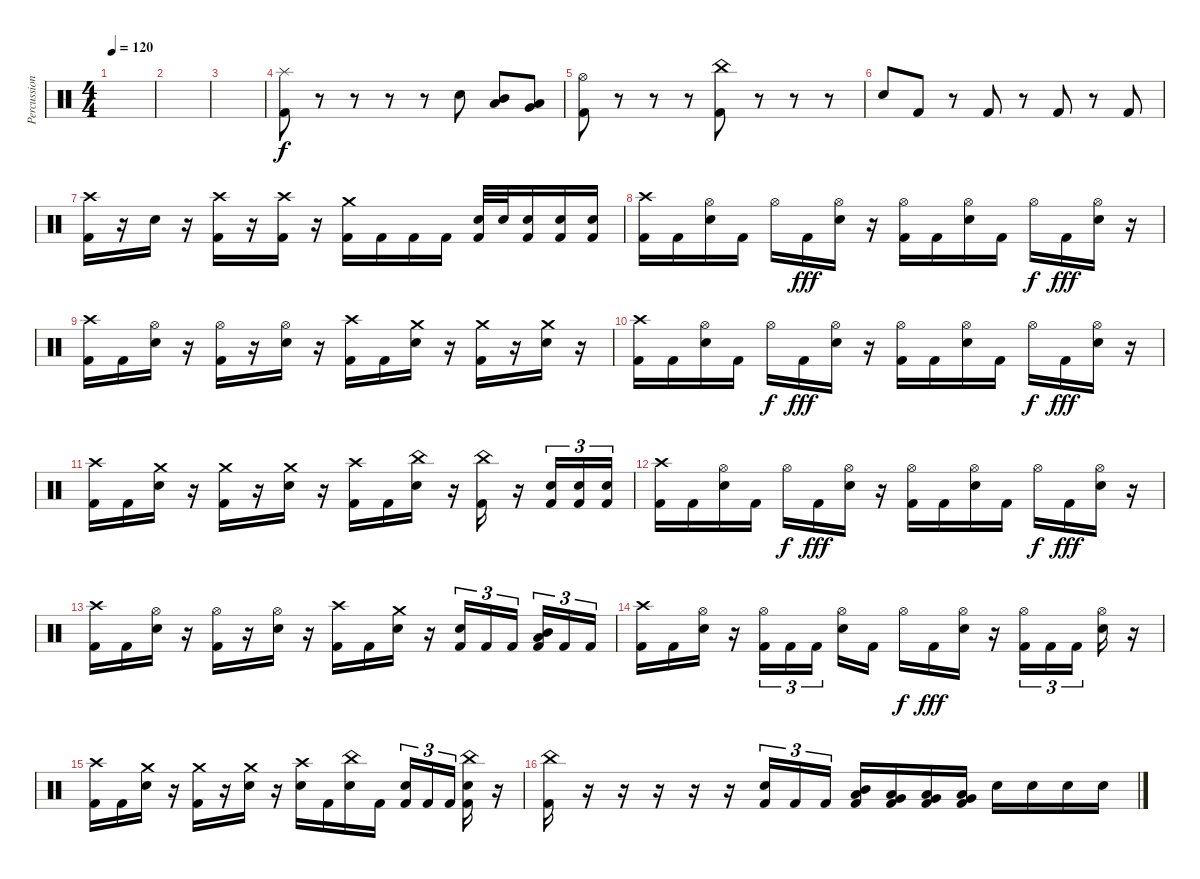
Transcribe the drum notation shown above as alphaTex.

\track ("Percussion" "Percussion") {instrument percussion}
\staff {score}
\articulation defaults
\ts (4 4)
\tempo 120
\clef neutral
\ks c
|
|
|
("Splash (hit)" "Kick (hit) 2").8 r.8 r.8 r.8 r.8 "Electric Snare (hit)".8 ("Low Tom (hit)" "Mid Tom (hit)").8 ("Very Low Tom (hit)" "Low Tom (hit)").8 |
("Hi-Hat (open)" "Kick (hit) 2").8 r.8 r.8 r.8 ("China (hit)" "Kick (hit) 2").8 r.8 r.8 r.8 |
"Electric Snare (hit)".8 "Kick (hit) 2".8 r.8 "Kick (hit) 2".8 r.8 "Kick (hit) 2".8 r.8 "Kick (hit) 2".8 |
("Crash high (hit)" "Kick (hit) 2").16 r.16 "Electric Snare (hit)".16 r.16 ("Crash high (hit)" "Kick (hit) 2").16 r.16 ("Crash high (hit)" "Kick (hit) 2").16 r.16 ("Crash medium (hit)" "Kick (hit) 2").16 "Kick (hit) 2".16 "Kick (hit) 2".16 "Kick (hit) 2".16 ("Electric Snare (hit)" "Kick (hit) 2").32 "Electric Snare (hit)".32 ("Electric Snare (hit)" "Kick (hit) 2").16 ("Electric Snare (hit)" "Kick (hit) 2").16 ("Electric Snare (hit)" "Kick (hit) 2").16 |
("Crash high (hit)" "Kick (hit) 2").16 "Kick (hit) 2".16 ("Hi-Hat (open)" "Electric Snare (hit)").16 "Kick (hit) 2".16 "Hi-Hat (open)".16{dy f} "Kick (hit) 2".16{dy fff} ("Hi-Hat (open)" "Electric Snare (hit)").16 r.16 ("Hi-Hat (open)" "Kick (hit) 2").16 "Kick (hit) 2".16 ("Hi-Hat (open)" "Electric Snare (hit)").16 "Kick (hit) 2".16 "Hi-Hat (open)".16{dy f} "Kick (hit) 2".16{dy fff} ("Hi-Hat (open)" "Electric Snare (hit)").16 r.16 |
("Crash high (hit)" "Kick (hit) 2").16 "Kick (hit) 2".16 ("Hi-Hat (open)" "Electric Snare (hit)").16 r.16 ("Hi-Hat (open)" "Kick (hit) 2").16 r.16 ("Hi-Hat (open)" "Electric Snare (hit)").16 r.16 ("Crash high (hit)" "Kick (hit) 2").16 "Kick (hit) 2".16 ("Crash medium (hit)" "Electric Snare (hit)").16 r.16 ("Crash medium (hit)" "Kick (hit) 2").16 r.16 ("Crash medium (hit)" "Electric Snare (hit)").16 r.16 |
("Crash high (hit)" "Kick (hit) 2").16 "Kick (hit) 2".16 ("Hi-Hat (open)" "Electric Snare (hit)").16 "Kick (hit) 2".16 "Hi-Hat (open)".16{dy f} "Kick (hit) 2".16{dy fff} ("Hi-Hat (open)" "Electric Snare (hit)").16 r.16 ("Hi-Hat (open)" "Kick (hit) 2").16 "Kick (hit) 2".16 ("Hi-Hat (open)" "Electric Snare (hit)").16 "Kick (hit) 2".16 "Hi-Hat (open)".16{dy f} "Kick (hit) 2".16{dy fff} ("Hi-Hat (open)" "Electric Snare (hit)").16 r.16 |
("Crash high (hit)" "Kick (hit) 2").16 "Kick (hit) 2".16 ("Crash medium (hit)" "Electric Snare (hit)").16 r.16 ("Crash medium (hit)" "Kick (hit) 2").16 r.16 ("Crash medium (hit)" "Electric Snare (hit)").16 r.16 ("Crash high (hit)" "Kick (hit) 2").16 "Kick (hit) 2".16 ("China (hit)" "Electric Snare (hit)").16 r.16 ("China (hit)" "Kick (hit) 2").16 r.16 ("Electric Snare (hit)" "Kick (hit) 2").16{tu (3 2)} ("Electric Snare (hit)" "Kick (hit) 2").16{tu (3 2)} ("Electric Snare (hit)" "Kick (hit) 2").16{tu (3 2)} |
("Crash high (hit)" "Kick (hit) 2").16 "Kick (hit) 2".16 ("Hi-Hat (open)" "Electric Snare (hit)").16 "Kick (hit) 2".16 "Hi-Hat (open)".16{dy f} "Kick (hit) 2".16{dy fff} ("Hi-Hat (open)" "Electric Snare (hit)").16 r.16 ("Hi-Hat (open)" "Kick (hit) 2").16 "Kick (hit) 2".16 ("Hi-Hat (open)" "Electric Snare (hit)").16 "Kick (hit) 2".16 "Hi-Hat (open)".16{dy f} "Kick (hit) 2".16{dy fff} ("Hi-Hat (open)" "Electric Snare (hit)").16 r.16 |
("Crash high (hit)" "Kick (hit) 2").16 "Kick (hit) 2".16 ("Hi-Hat (open)" "Electric Snare (hit)").16 r.16 ("Hi-Hat (open)" "Kick (hit) 2").16 r.16 ("Hi-Hat (open)" "Electric Snare (hit)").16 r.16 ("Crash high (hit)" "Kick (hit) 2").16 "Kick (hit) 2".16 ("Crash medium (hit)" "Electric Snare (hit)").16 r.16 ("Electric Snare (hit)" "Kick (hit) 2").16{tu (3 2)} "Kick (hit) 2".16{tu (3 2)} "Kick (hit) 2".16{tu (3 2) beam splitsecondary} ("Low Tom (hit)" "Mid Tom (hit)" "Kick (hit) 2").16{tu (3 2)} "Kick (hit) 2".16{tu (3 2)} "Kick (hit) 2".16{tu (3 2)} |
("Crash high (hit)" "Kick (hit) 2").16 "Kick (hit) 2".16 ("Hi-Hat (open)" "Electric Snare (hit)").16 r.16 ("Hi-Hat (open)" "Kick (hit) 2").16{tu (3 2)} "Kick (hit) 2".16{tu (3 2)} "Kick (hit) 2".16{tu (3 2) beam splitsecondary} ("Hi-Hat (open)" "Electric Snare (hit)").16 "Kick (hit) 2".16 "Hi-Hat (open)".16{dy f} "Kick (hit) 2".16{dy fff} ("Hi-Hat (open)" "Electric Snare (hit)").16 r.16 ("Hi-Hat (open)" "Kick (hit) 2").16{tu (3 2)} "Kick (hit) 2".16{tu (3 2)} "Kick (hit) 2".16{tu (3 2) beam splitsecondary} ("Hi-Hat (open)" "Electric Snare (hit)").16 r.16 |
("Crash high (hit)" "Kick (hit) 2").16 "Kick (hit) 2".16 ("Crash medium (hit)" "Electric Snare (hit)").16 r.16 ("Crash medium (hit)" "Kick (hit) 2").16 r.16 ("Crash medium (hit)" "Electric Snare (hit)").16 r.16 ("Crash high (hit)" "Electric Snare (hit)").16 "Kick (hit) 2".16 ("China (hit)" "Electric Snare (hit)").16 "Kick (hit) 2".16 ("Electric Snare (hit)" "Kick (hit) 2").16{tu (3 2)} "Kick (hit) 2".16{tu (3 2)} "Kick (hit) 2".16{tu (3 2) beam splitsecondary} ("China (hit)" "Electric Snare (hit)" "Kick (hit) 2").16 r.16 |
("China (hit)" "Kick (hit) 2").16 r.16 r.16 r.16 r.16 r.16 ("Electric Snare (hit)" "Kick (hit) 2").16{tu (3 2)} "Kick (hit) 2".16{tu (3 2)} "Kick (hit) 2".16{tu (3 2)} ("Low Tom (hit)" "Mid Tom (hit)" "Kick (hit) 2").16 ("Low Tom (hit)" "Very Low Tom (hit)" "Kick (hit) 2").16 ("Low Floor Tom (hit)" "Very Low Tom (hit)" "Kick (hit) 2").16 ("Low Floor Tom (hit)" "Very Low Tom (hit)" "Kick (hit) 2").16 "Electric Snare (hit)".16 "Electric Snare (hit)".16 "Electric Snare (hit)".16 "Electric Snare (hit)".16
